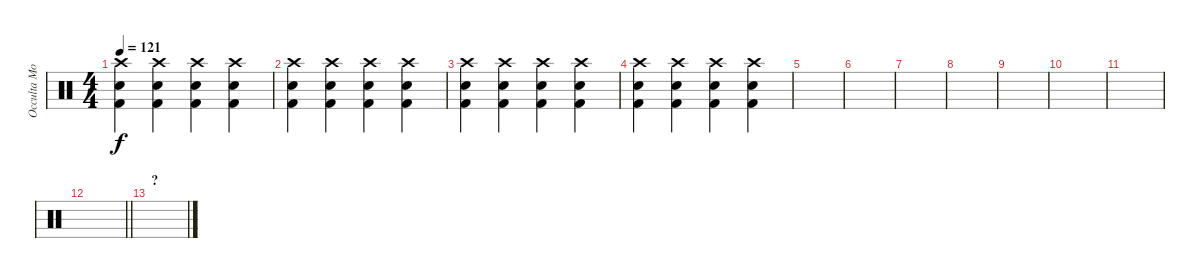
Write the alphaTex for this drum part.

\track ("Occulta Mors" "Occulta Mo") {instrument percussion}
\staff {score}
\articulation defaults
\ts (4 4)
\tempo 121
\clef neutral
\ks c
("Crash high (hit)" "Kick (hit) 2" "Snare (hit) 2").4{dy f} ("Crash high (hit)" "Kick (hit) 2" "Snare (hit) 2").4 ("Crash high (hit)" "Kick (hit) 2" "Snare (hit) 2").4 ("Crash high (hit)" "Kick (hit) 2" "Snare (hit) 2").4 |
("Crash high (hit)" "Kick (hit) 2" "Snare (hit) 2").4 ("Crash high (hit)" "Kick (hit) 2" "Snare (hit) 2").4 ("Crash high (hit)" "Kick (hit) 2" "Snare (hit) 2").4 ("Crash high (hit)" "Kick (hit) 2" "Snare (hit) 2").4 |
("Crash high (hit)" "Kick (hit) 2" "Snare (hit) 2").4 ("Crash high (hit)" "Kick (hit) 2" "Snare (hit) 2").4 ("Crash high (hit)" "Kick (hit) 2" "Snare (hit) 2").4 ("Crash high (hit)" "Kick (hit) 2" "Snare (hit) 2").4 |
("Crash high (hit)" "Kick (hit) 2" "Snare (hit) 2").4 ("Crash high (hit)" "Kick (hit) 2" "Snare (hit) 2").4 ("Crash high (hit)" "Kick (hit) 2" "Snare (hit) 2").4 ("Crash high (hit)" "Kick (hit) 2" "Snare (hit) 2").4 |
|
|
|
|
|
|
|
\barLineRight lightlight
|
\section ("" "?")
